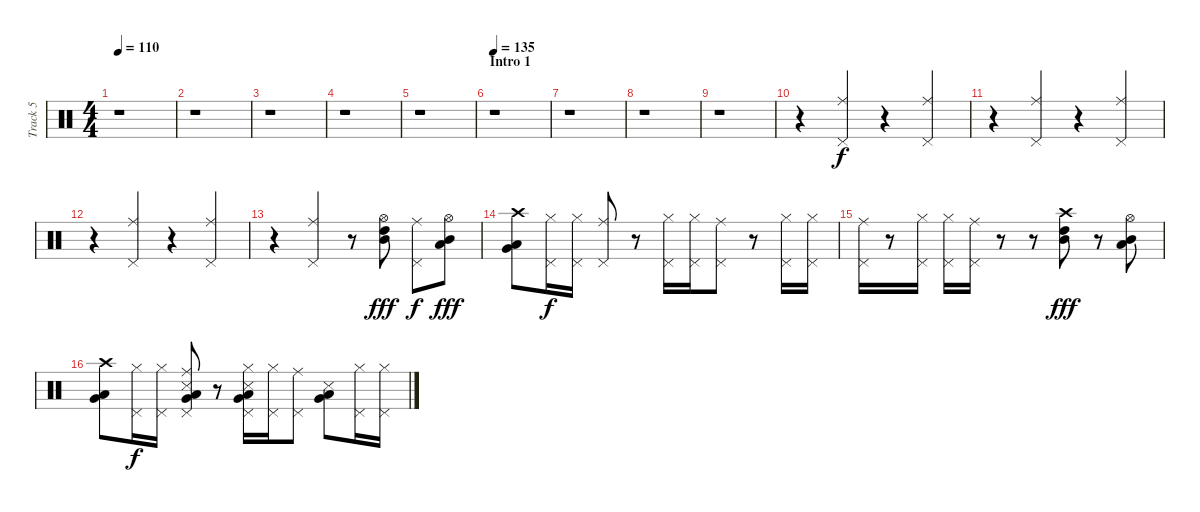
\track ("Track 5" "Track 5") {instrument percussion}
\staff {score}
\articulation defaults
\ts (4 4)
\tempo 110
\clef neutral
\ks c
r.1{dy f} |
r.1 |
r.1 |
r.1 |
r.1 |
\section ("" "Intro 1")
\tempo 135
r.1 |
r.1 |
r.1 |
r.1 |
r.4 ("Pedal Hi-Hat (hit)" "Ride (middle)").4 r.4 ("Pedal Hi-Hat (hit)" "Ride (middle)").4 |
r.4 ("Pedal Hi-Hat (hit)" "Ride (middle)").4 r.4 ("Pedal Hi-Hat (hit)" "Ride (middle)").4 |
r.4 ("Pedal Hi-Hat (hit)" "Ride (middle)").4 r.4 ("Pedal Hi-Hat (hit)" "Ride (middle)").4 |
r.4 ("Pedal Hi-Hat (hit)" "Ride (middle)").4 r.8 ("High Tom (hit)" "Hi-Hat (open)" "Mid Tom (hit)").8{dy fff} ("Pedal Hi-Hat (hit)" "Ride (middle)").8{dy f} ("Hi-Hat (open)" "Mid Tom (hit)" "Low Tom (hit)").8{dy fff} |
("Crash high (hit)" "Low Tom (hit)" "Very Low Tom (hit)").8 ("Pedal Hi-Hat (hit)" "Hi-Hat (closed)").16{dy f} ("Pedal Hi-Hat (hit)" "Hi-Hat (closed)").16 ("Pedal Hi-Hat (hit)" "Ride (middle)").8 r.8 ("Pedal Hi-Hat (hit)" "Hi-Hat (closed)").16 ("Pedal Hi-Hat (hit)" "Hi-Hat (closed)").16 ("Pedal Hi-Hat (hit)" "Ride (middle)").8 r.8 ("Pedal Hi-Hat (hit)" "Hi-Hat (closed)").16 ("Pedal Hi-Hat (hit)" "Hi-Hat (closed)").16 |
("Pedal Hi-Hat (hit)" "Ride (middle)").16 r.8 ("Pedal Hi-Hat (hit)" "Hi-Hat (closed)").16 ("Pedal Hi-Hat (hit)" "Hi-Hat (closed)").16 ("Pedal Hi-Hat (hit)" "Ride (middle)").16 r.8 r.8 ("Crash high (hit)" "High Tom (hit)" "Mid Tom (hit)").8{dy fff} r.8 ("Hi-Hat (open)" "Mid Tom (hit)" "Low Tom (hit)").8 |
("Crash high (hit)" "Low Tom (hit)" "Very Low Tom (hit)").8 ("Pedal Hi-Hat (hit)" "Hi-Hat (closed)").16{dy f} ("Pedal Hi-Hat (hit)" "Hi-Hat (closed)").16 ("Pedal Hi-Hat (hit)" "Ride (middle)" "Low Floor Tom (hit)" "Snare (side stick) 3" "Very Low Tom (hit)").8 r.8 ("Pedal Hi-Hat (hit)" "Hi-Hat (closed)" "Low Floor Tom (hit)" "Snare (side stick) 3" "Very Low Tom (hit)").16 ("Pedal Hi-Hat (hit)" "Hi-Hat (closed)").16 ("Pedal Hi-Hat (hit)" "Ride (middle)").8 ("Low Floor Tom (hit)" "Snare (side stick) 3" "Very Low Tom (hit)").8 ("Pedal Hi-Hat (hit)" "Hi-Hat (closed)").16 ("Pedal Hi-Hat (hit)" "Hi-Hat (closed)").16
